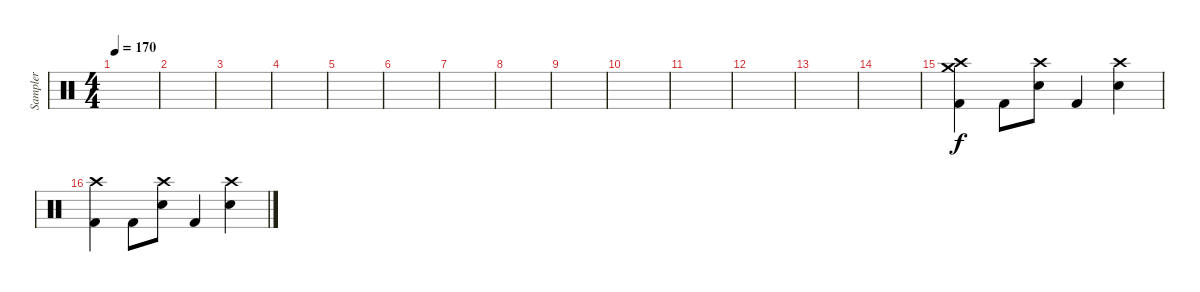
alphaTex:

\track ("Sampler" "Sampler") {instrument percussion}
\staff {score}
\articulation defaults
\ts (4 4)
\tempo 170
\clef neutral
\ks c
|
|
|
|
|
|
|
|
|
|
|
|
|
|
("Crash high (hit)" "Crash medium (hit)" "Kick (hit) 2").4 "Kick (hit) 2".8 ("Crash high (hit)" "Snare (hit) 2").8 "Kick (hit) 2".4 ("Crash high (hit)" "Snare (hit) 2").4 |
("Crash high (hit)" "Kick (hit) 2").4 "Kick (hit) 2".8 ("Crash high (hit)" "Snare (hit) 2").8 "Kick (hit) 2".4 ("Crash high (hit)" "Snare (hit) 2").4
